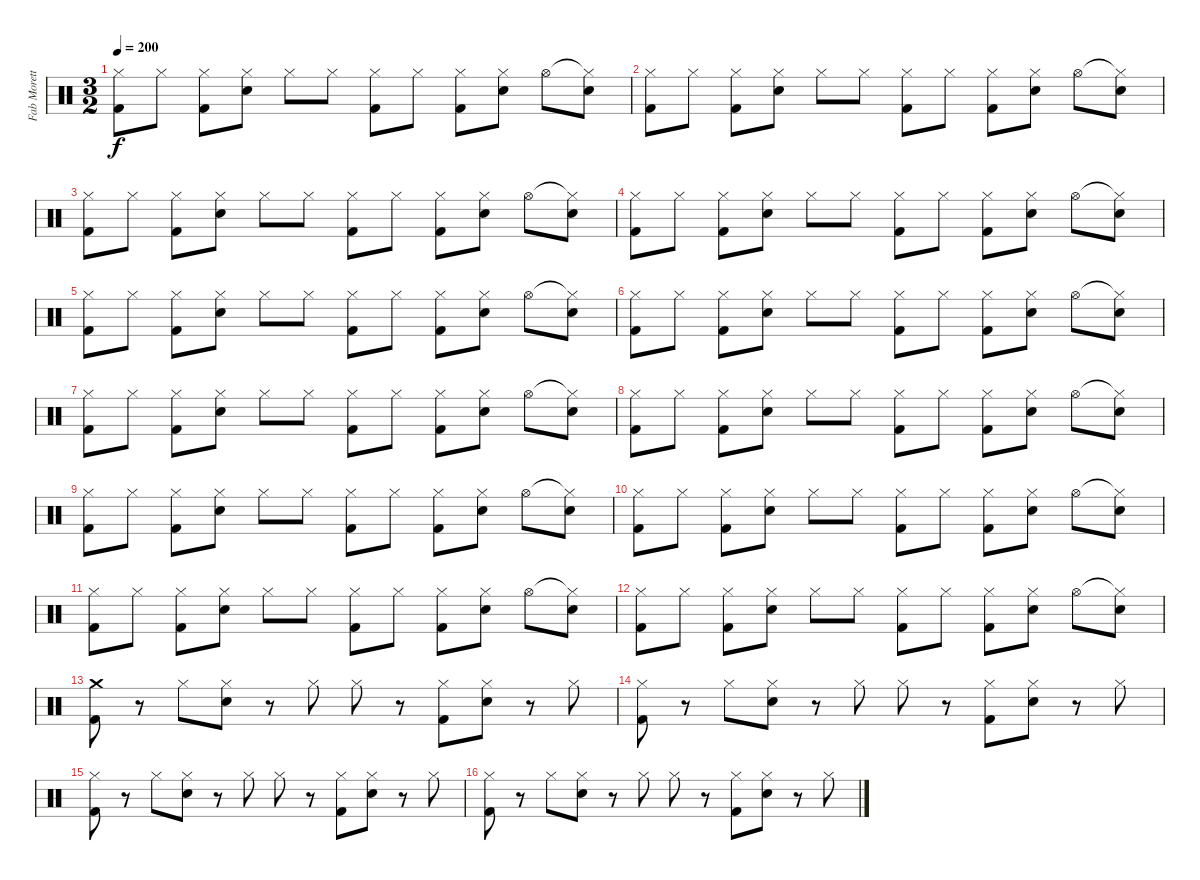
\track ("Fab Moretti" "Fab Morett") {instrument percussion}
\staff {score}
\articulation defaults
\ts (3 2)
\tempo 200
\clef neutral
\ks c
("Hi-Hat (closed)" "Kick (hit) 2").8{dy f} "Hi-Hat (closed)".8 ("Hi-Hat (closed)" "Kick (hit) 2").8 ("Hi-Hat (closed)" "Snare (hit) 2").8 "Hi-Hat (closed)".8 "Hi-Hat (closed)".8 ("Hi-Hat (closed)" "Kick (hit) 2").8 "Hi-Hat (closed)".8 ("Hi-Hat (closed)" "Kick (hit) 2").8 ("Hi-Hat (closed)" "Snare (hit) 2").8 "Hi-Hat (open)".8 ("Hi-Hat (closed)"{t} "Snare (hit) 2").8 |
("Hi-Hat (closed)" "Kick (hit) 2").8 "Hi-Hat (closed)".8 ("Hi-Hat (closed)" "Kick (hit) 2").8 ("Hi-Hat (closed)" "Snare (hit) 2").8 "Hi-Hat (closed)".8 "Hi-Hat (closed)".8 ("Hi-Hat (closed)" "Kick (hit) 2").8 "Hi-Hat (closed)".8 ("Hi-Hat (closed)" "Kick (hit) 2").8 ("Hi-Hat (closed)" "Snare (hit) 2").8 "Hi-Hat (open)".8 ("Hi-Hat (closed)"{t} "Snare (hit) 2").8 |
("Hi-Hat (closed)" "Kick (hit) 2").8 "Hi-Hat (closed)".8 ("Hi-Hat (closed)" "Kick (hit) 2").8 ("Hi-Hat (closed)" "Snare (hit) 2").8 "Hi-Hat (closed)".8 "Hi-Hat (closed)".8 ("Hi-Hat (closed)" "Kick (hit) 2").8 "Hi-Hat (closed)".8 ("Hi-Hat (closed)" "Kick (hit) 2").8 ("Hi-Hat (closed)" "Snare (hit) 2").8 "Hi-Hat (open)".8 ("Hi-Hat (closed)"{t} "Snare (hit) 2").8 |
("Hi-Hat (closed)" "Kick (hit) 2").8 "Hi-Hat (closed)".8 ("Hi-Hat (closed)" "Kick (hit) 2").8 ("Hi-Hat (closed)" "Snare (hit) 2").8 "Hi-Hat (closed)".8 "Hi-Hat (closed)".8 ("Hi-Hat (closed)" "Kick (hit) 2").8 "Hi-Hat (closed)".8 ("Hi-Hat (closed)" "Kick (hit) 2").8 ("Hi-Hat (closed)" "Snare (hit) 2").8 "Hi-Hat (open)".8 ("Hi-Hat (closed)"{t} "Snare (hit) 2").8 |
("Hi-Hat (closed)" "Kick (hit) 2").8 "Hi-Hat (closed)".8 ("Hi-Hat (closed)" "Kick (hit) 2").8 ("Hi-Hat (closed)" "Snare (hit) 2").8 "Hi-Hat (closed)".8 "Hi-Hat (closed)".8 ("Hi-Hat (closed)" "Kick (hit) 2").8 "Hi-Hat (closed)".8 ("Hi-Hat (closed)" "Kick (hit) 2").8 ("Hi-Hat (closed)" "Snare (hit) 2").8 "Hi-Hat (open)".8 ("Hi-Hat (closed)"{t} "Snare (hit) 2").8 |
("Hi-Hat (closed)" "Kick (hit) 2").8 "Hi-Hat (closed)".8 ("Hi-Hat (closed)" "Kick (hit) 2").8 ("Hi-Hat (closed)" "Snare (hit) 2").8 "Hi-Hat (closed)".8 "Hi-Hat (closed)".8 ("Hi-Hat (closed)" "Kick (hit) 2").8 "Hi-Hat (closed)".8 ("Hi-Hat (closed)" "Kick (hit) 2").8 ("Hi-Hat (closed)" "Snare (hit) 2").8 "Hi-Hat (open)".8 ("Hi-Hat (closed)"{t} "Snare (hit) 2").8 |
("Hi-Hat (closed)" "Kick (hit) 2").8 "Hi-Hat (closed)".8 ("Hi-Hat (closed)" "Kick (hit) 2").8 ("Hi-Hat (closed)" "Snare (hit) 2").8 "Hi-Hat (closed)".8 "Hi-Hat (closed)".8 ("Hi-Hat (closed)" "Kick (hit) 2").8 "Hi-Hat (closed)".8 ("Hi-Hat (closed)" "Kick (hit) 2").8 ("Hi-Hat (closed)" "Snare (hit) 2").8 "Hi-Hat (open)".8 ("Hi-Hat (closed)"{t} "Snare (hit) 2").8 |
("Hi-Hat (closed)" "Kick (hit) 2").8 "Hi-Hat (closed)".8 ("Hi-Hat (closed)" "Kick (hit) 2").8 ("Hi-Hat (closed)" "Snare (hit) 2").8 "Hi-Hat (closed)".8 "Hi-Hat (closed)".8 ("Hi-Hat (closed)" "Kick (hit) 2").8 "Hi-Hat (closed)".8 ("Hi-Hat (closed)" "Kick (hit) 2").8 ("Hi-Hat (closed)" "Snare (hit) 2").8 "Hi-Hat (open)".8 ("Hi-Hat (closed)"{t} "Snare (hit) 2").8 |
("Hi-Hat (closed)" "Kick (hit) 2").8 "Hi-Hat (closed)".8 ("Hi-Hat (closed)" "Kick (hit) 2").8 ("Hi-Hat (closed)" "Snare (hit) 2").8 "Hi-Hat (closed)".8 "Hi-Hat (closed)".8 ("Hi-Hat (closed)" "Kick (hit) 2").8 "Hi-Hat (closed)".8 ("Hi-Hat (closed)" "Kick (hit) 2").8 ("Hi-Hat (closed)" "Snare (hit) 2").8 "Hi-Hat (open)".8 ("Hi-Hat (closed)"{t} "Snare (hit) 2").8 |
("Hi-Hat (closed)" "Kick (hit) 2").8 "Hi-Hat (closed)".8 ("Hi-Hat (closed)" "Kick (hit) 2").8 ("Hi-Hat (closed)" "Snare (hit) 2").8 "Hi-Hat (closed)".8 "Hi-Hat (closed)".8 ("Hi-Hat (closed)" "Kick (hit) 2").8 "Hi-Hat (closed)".8 ("Hi-Hat (closed)" "Kick (hit) 2").8 ("Hi-Hat (closed)" "Snare (hit) 2").8 "Hi-Hat (open)".8 ("Hi-Hat (closed)"{t} "Snare (hit) 2").8 |
("Hi-Hat (closed)" "Kick (hit) 2").8 "Hi-Hat (closed)".8 ("Hi-Hat (closed)" "Kick (hit) 2").8 ("Hi-Hat (closed)" "Snare (hit) 2").8 "Hi-Hat (closed)".8 "Hi-Hat (closed)".8 ("Hi-Hat (closed)" "Kick (hit) 2").8 "Hi-Hat (closed)".8 ("Hi-Hat (closed)" "Kick (hit) 2").8 ("Hi-Hat (closed)" "Snare (hit) 2").8 "Hi-Hat (open)".8 ("Hi-Hat (closed)"{t} "Snare (hit) 2").8 |
("Hi-Hat (closed)" "Kick (hit) 2").8 "Hi-Hat (closed)".8 ("Hi-Hat (closed)" "Kick (hit) 2").8 ("Hi-Hat (closed)" "Snare (hit) 2").8 "Hi-Hat (closed)".8 "Hi-Hat (closed)".8 ("Hi-Hat (closed)" "Kick (hit) 2").8 "Hi-Hat (closed)".8 ("Hi-Hat (closed)" "Kick (hit) 2").8 ("Hi-Hat (closed)" "Snare (hit) 2").8 "Hi-Hat (open)".8 ("Hi-Hat (closed)"{t} "Snare (hit) 2").8 |
("Crash medium (hit)" "Kick (hit) 2").8 r.8 "Hi-Hat (closed)".8 ("Hi-Hat (closed)" "Snare (hit) 2").8 r.8 "Hi-Hat (closed)".8 "Hi-Hat (closed)".8 r.8 ("Hi-Hat (closed)" "Kick (hit) 2").8 ("Hi-Hat (closed)" "Snare (hit) 2").8 r.8 "Hi-Hat (closed)".8 |
("Hi-Hat (closed)" "Kick (hit) 2").8 r.8 "Hi-Hat (closed)".8 ("Hi-Hat (closed)" "Snare (hit) 2").8 r.8 "Hi-Hat (closed)".8 "Hi-Hat (closed)".8 r.8 ("Hi-Hat (closed)" "Kick (hit) 2").8 ("Hi-Hat (closed)" "Snare (hit) 2").8 r.8 "Hi-Hat (closed)".8 |
("Hi-Hat (closed)" "Kick (hit) 2").8 r.8 "Hi-Hat (closed)".8 ("Hi-Hat (closed)" "Snare (hit) 2").8 r.8 "Hi-Hat (closed)".8 "Hi-Hat (closed)".8 r.8 ("Hi-Hat (closed)" "Kick (hit) 2").8 ("Hi-Hat (closed)" "Snare (hit) 2").8 r.8 "Hi-Hat (closed)".8 |
("Hi-Hat (closed)" "Kick (hit) 2").8 r.8 "Hi-Hat (closed)".8 ("Hi-Hat (closed)" "Snare (hit) 2").8 r.8 "Hi-Hat (closed)".8 "Hi-Hat (closed)".8 r.8 ("Hi-Hat (closed)" "Kick (hit) 2").8 ("Hi-Hat (closed)" "Snare (hit) 2").8 r.8 "Hi-Hat (closed)".8
